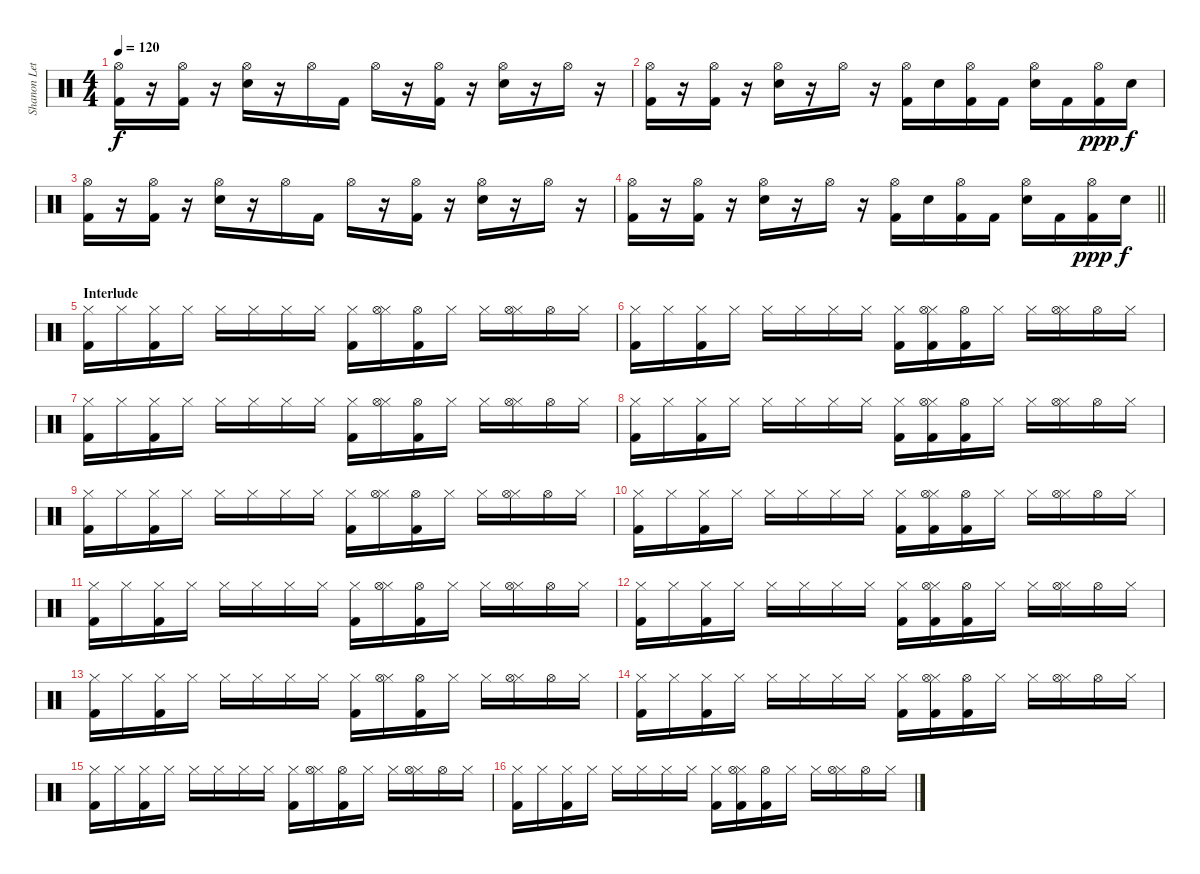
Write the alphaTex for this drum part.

\track ("Shanon Leto(Drums)" "Shanon Let") {instrument percussion}
\staff {score}
\articulation defaults
\ts (4 4)
\tempo 120
\clef neutral
\ks c
("Hi-Hat (open)" "Kick (hit) 2").16{dy f} r.16 ("Hi-Hat (open)" "Kick (hit) 2").16 r.16 ("Hi-Hat (open)" "Electric Snare (hit)").16 r.16 "Hi-Hat (open)".16 "Kick (hit) 2".16 "Hi-Hat (open)".16 r.16 ("Hi-Hat (open)" "Kick (hit) 2").16 r.16 ("Hi-Hat (open)" "Electric Snare (hit)").16 r.16 "Hi-Hat (open)".16 r.16 |
("Hi-Hat (open)" "Kick (hit) 2").16 r.16 ("Hi-Hat (open)" "Kick (hit) 2").16 r.16 ("Hi-Hat (open)" "Electric Snare (hit)").16 r.16 "Hi-Hat (open)".16 r.16 ("Hi-Hat (open)" "Kick (hit) 2").16 "Electric Snare (hit)".16 ("Hi-Hat (open)" "Kick (hit) 2").16 "Kick (hit) 2".16 ("Hi-Hat (open)" "Electric Snare (hit)").16 "Kick (hit) 2".16 ("Hi-Hat (open)" "Kick (hit) 2").16{dy ppp} "Electric Snare (hit)".16{dy f} |
("Hi-Hat (open)" "Kick (hit) 2").16 r.16 ("Hi-Hat (open)" "Kick (hit) 2").16 r.16 ("Hi-Hat (open)" "Electric Snare (hit)").16 r.16 "Hi-Hat (open)".16 "Kick (hit) 2".16 "Hi-Hat (open)".16 r.16 ("Hi-Hat (open)" "Kick (hit) 2").16 r.16 ("Hi-Hat (open)" "Electric Snare (hit)").16 r.16 "Hi-Hat (open)".16 r.16 |
\barLineRight lightlight
("Hi-Hat (open)" "Kick (hit) 2").16 r.16 ("Hi-Hat (open)" "Kick (hit) 2").16 r.16 ("Hi-Hat (open)" "Electric Snare (hit)").16 r.16 "Hi-Hat (open)".16 r.16 ("Hi-Hat (open)" "Kick (hit) 2").16 "Electric Snare (hit)".16 ("Hi-Hat (open)" "Kick (hit) 2").16 "Kick (hit) 2".16 ("Hi-Hat (open)" "Electric Snare (hit)").16 "Kick (hit) 2".16 ("Hi-Hat (open)" "Kick (hit) 2").16{dy ppp} "Electric Snare (hit)".16{dy f} |
\section ("" "Interlude")
("Hi-Hat (closed)" "Kick (hit) 2").16 "Hi-Hat (closed)".16 ("Hi-Hat (closed)" "Kick (hit) 2").16 "Hi-Hat (closed)".16 "Hi-Hat (closed)".16 "Hi-Hat (closed)".16 "Hi-Hat (closed)".16 "Hi-Hat (closed)".16 ("Hi-Hat (closed)" "Kick (hit) 2").16 ("Hi-Hat (closed)" "Hi-Hat (open)").16 ("Hi-Hat (open)" "Kick (hit) 2").16 "Hi-Hat (closed)".16 "Hi-Hat (closed)".16 ("Hi-Hat (closed)" "Hi-Hat (open)").16 "Hi-Hat (open)".16 "Hi-Hat (closed)".16 |
("Hi-Hat (closed)" "Kick (hit) 2").16 "Hi-Hat (closed)".16 ("Hi-Hat (closed)" "Kick (hit) 2").16 "Hi-Hat (closed)".16 "Hi-Hat (closed)".16 "Hi-Hat (closed)".16 "Hi-Hat (closed)".16 "Hi-Hat (closed)".16 ("Hi-Hat (closed)" "Kick (hit) 2").16 ("Hi-Hat (closed)" "Hi-Hat (open)" "Kick (hit) 2").16 ("Hi-Hat (open)" "Kick (hit) 2").16 "Hi-Hat (closed)".16 "Hi-Hat (closed)".16 ("Hi-Hat (closed)" "Hi-Hat (open)").16 "Hi-Hat (open)".16 "Hi-Hat (closed)".16 |
("Hi-Hat (closed)" "Kick (hit) 2").16 "Hi-Hat (closed)".16 ("Hi-Hat (closed)" "Kick (hit) 2").16 "Hi-Hat (closed)".16 "Hi-Hat (closed)".16 "Hi-Hat (closed)".16 "Hi-Hat (closed)".16 "Hi-Hat (closed)".16 ("Hi-Hat (closed)" "Kick (hit) 2").16 ("Hi-Hat (closed)" "Hi-Hat (open)").16 ("Hi-Hat (open)" "Kick (hit) 2").16 "Hi-Hat (closed)".16 "Hi-Hat (closed)".16 ("Hi-Hat (closed)" "Hi-Hat (open)").16 "Hi-Hat (open)".16 "Hi-Hat (closed)".16 |
("Hi-Hat (closed)" "Kick (hit) 2").16 "Hi-Hat (closed)".16 ("Hi-Hat (closed)" "Kick (hit) 2").16 "Hi-Hat (closed)".16 "Hi-Hat (closed)".16 "Hi-Hat (closed)".16 "Hi-Hat (closed)".16 "Hi-Hat (closed)".16 ("Hi-Hat (closed)" "Kick (hit) 2").16 ("Hi-Hat (closed)" "Hi-Hat (open)" "Kick (hit) 2").16 ("Hi-Hat (open)" "Kick (hit) 2").16 "Hi-Hat (closed)".16 "Hi-Hat (closed)".16 ("Hi-Hat (closed)" "Hi-Hat (open)").16 "Hi-Hat (open)".16 "Hi-Hat (closed)".16 |
("Hi-Hat (closed)" "Kick (hit) 2").16 "Hi-Hat (closed)".16 ("Hi-Hat (closed)" "Kick (hit) 2").16 "Hi-Hat (closed)".16 "Hi-Hat (closed)".16 "Hi-Hat (closed)".16 "Hi-Hat (closed)".16 "Hi-Hat (closed)".16 ("Hi-Hat (closed)" "Kick (hit) 2").16 ("Hi-Hat (closed)" "Hi-Hat (open)").16 ("Hi-Hat (open)" "Kick (hit) 2").16 "Hi-Hat (closed)".16 "Hi-Hat (closed)".16 ("Hi-Hat (closed)" "Hi-Hat (open)").16 "Hi-Hat (open)".16 "Hi-Hat (closed)".16 |
("Hi-Hat (closed)" "Kick (hit) 2").16 "Hi-Hat (closed)".16 ("Hi-Hat (closed)" "Kick (hit) 2").16 "Hi-Hat (closed)".16 "Hi-Hat (closed)".16 "Hi-Hat (closed)".16 "Hi-Hat (closed)".16 "Hi-Hat (closed)".16 ("Hi-Hat (closed)" "Kick (hit) 2").16 ("Hi-Hat (closed)" "Hi-Hat (open)" "Kick (hit) 2").16 ("Hi-Hat (open)" "Kick (hit) 2").16 "Hi-Hat (closed)".16 "Hi-Hat (closed)".16 ("Hi-Hat (closed)" "Hi-Hat (open)").16 "Hi-Hat (open)".16 "Hi-Hat (closed)".16 |
("Hi-Hat (closed)" "Kick (hit) 2").16 "Hi-Hat (closed)".16 ("Hi-Hat (closed)" "Kick (hit) 2").16 "Hi-Hat (closed)".16 "Hi-Hat (closed)".16 "Hi-Hat (closed)".16 "Hi-Hat (closed)".16 "Hi-Hat (closed)".16 ("Hi-Hat (closed)" "Kick (hit) 2").16 ("Hi-Hat (closed)" "Hi-Hat (open)").16 ("Hi-Hat (open)" "Kick (hit) 2").16 "Hi-Hat (closed)".16 "Hi-Hat (closed)".16 ("Hi-Hat (closed)" "Hi-Hat (open)").16 "Hi-Hat (open)".16 "Hi-Hat (closed)".16 |
("Hi-Hat (closed)" "Kick (hit) 2").16 "Hi-Hat (closed)".16 ("Hi-Hat (closed)" "Kick (hit) 2").16 "Hi-Hat (closed)".16 "Hi-Hat (closed)".16 "Hi-Hat (closed)".16 "Hi-Hat (closed)".16 "Hi-Hat (closed)".16 ("Hi-Hat (closed)" "Kick (hit) 2").16 ("Hi-Hat (closed)" "Hi-Hat (open)" "Kick (hit) 2").16 ("Hi-Hat (open)" "Kick (hit) 2").16 "Hi-Hat (closed)".16 "Hi-Hat (closed)".16 ("Hi-Hat (closed)" "Hi-Hat (open)").16 "Hi-Hat (open)".16 "Hi-Hat (closed)".16 |
("Hi-Hat (closed)" "Kick (hit) 2").16 "Hi-Hat (closed)".16 ("Hi-Hat (closed)" "Kick (hit) 2").16 "Hi-Hat (closed)".16 "Hi-Hat (closed)".16 "Hi-Hat (closed)".16 "Hi-Hat (closed)".16 "Hi-Hat (closed)".16 ("Hi-Hat (closed)" "Kick (hit) 2").16 ("Hi-Hat (closed)" "Hi-Hat (open)").16 ("Hi-Hat (open)" "Kick (hit) 2").16 "Hi-Hat (closed)".16 "Hi-Hat (closed)".16 ("Hi-Hat (closed)" "Hi-Hat (open)").16 "Hi-Hat (open)".16 "Hi-Hat (closed)".16 |
("Hi-Hat (closed)" "Kick (hit) 2").16 "Hi-Hat (closed)".16 ("Hi-Hat (closed)" "Kick (hit) 2").16 "Hi-Hat (closed)".16 "Hi-Hat (closed)".16 "Hi-Hat (closed)".16 "Hi-Hat (closed)".16 "Hi-Hat (closed)".16 ("Hi-Hat (closed)" "Kick (hit) 2").16 ("Hi-Hat (closed)" "Hi-Hat (open)" "Kick (hit) 2").16 ("Hi-Hat (open)" "Kick (hit) 2").16 "Hi-Hat (closed)".16 "Hi-Hat (closed)".16 ("Hi-Hat (closed)" "Hi-Hat (open)").16 "Hi-Hat (open)".16 "Hi-Hat (closed)".16 |
("Hi-Hat (closed)" "Kick (hit) 2").16 "Hi-Hat (closed)".16 ("Hi-Hat (closed)" "Kick (hit) 2").16 "Hi-Hat (closed)".16 "Hi-Hat (closed)".16 "Hi-Hat (closed)".16 "Hi-Hat (closed)".16 "Hi-Hat (closed)".16 ("Hi-Hat (closed)" "Kick (hit) 2").16 ("Hi-Hat (closed)" "Hi-Hat (open)").16 ("Hi-Hat (open)" "Kick (hit) 2").16 "Hi-Hat (closed)".16 "Hi-Hat (closed)".16 ("Hi-Hat (closed)" "Hi-Hat (open)").16 "Hi-Hat (open)".16 "Hi-Hat (closed)".16 |
("Hi-Hat (closed)" "Kick (hit) 2").16 "Hi-Hat (closed)".16 ("Hi-Hat (closed)" "Kick (hit) 2").16 "Hi-Hat (closed)".16 "Hi-Hat (closed)".16 "Hi-Hat (closed)".16 "Hi-Hat (closed)".16 "Hi-Hat (closed)".16 ("Hi-Hat (closed)" "Kick (hit) 2").16 ("Hi-Hat (closed)" "Hi-Hat (open)" "Kick (hit) 2").16 ("Hi-Hat (open)" "Kick (hit) 2").16 "Hi-Hat (closed)".16 "Hi-Hat (closed)".16 ("Hi-Hat (closed)" "Hi-Hat (open)").16 "Hi-Hat (open)".16 "Hi-Hat (closed)".16
